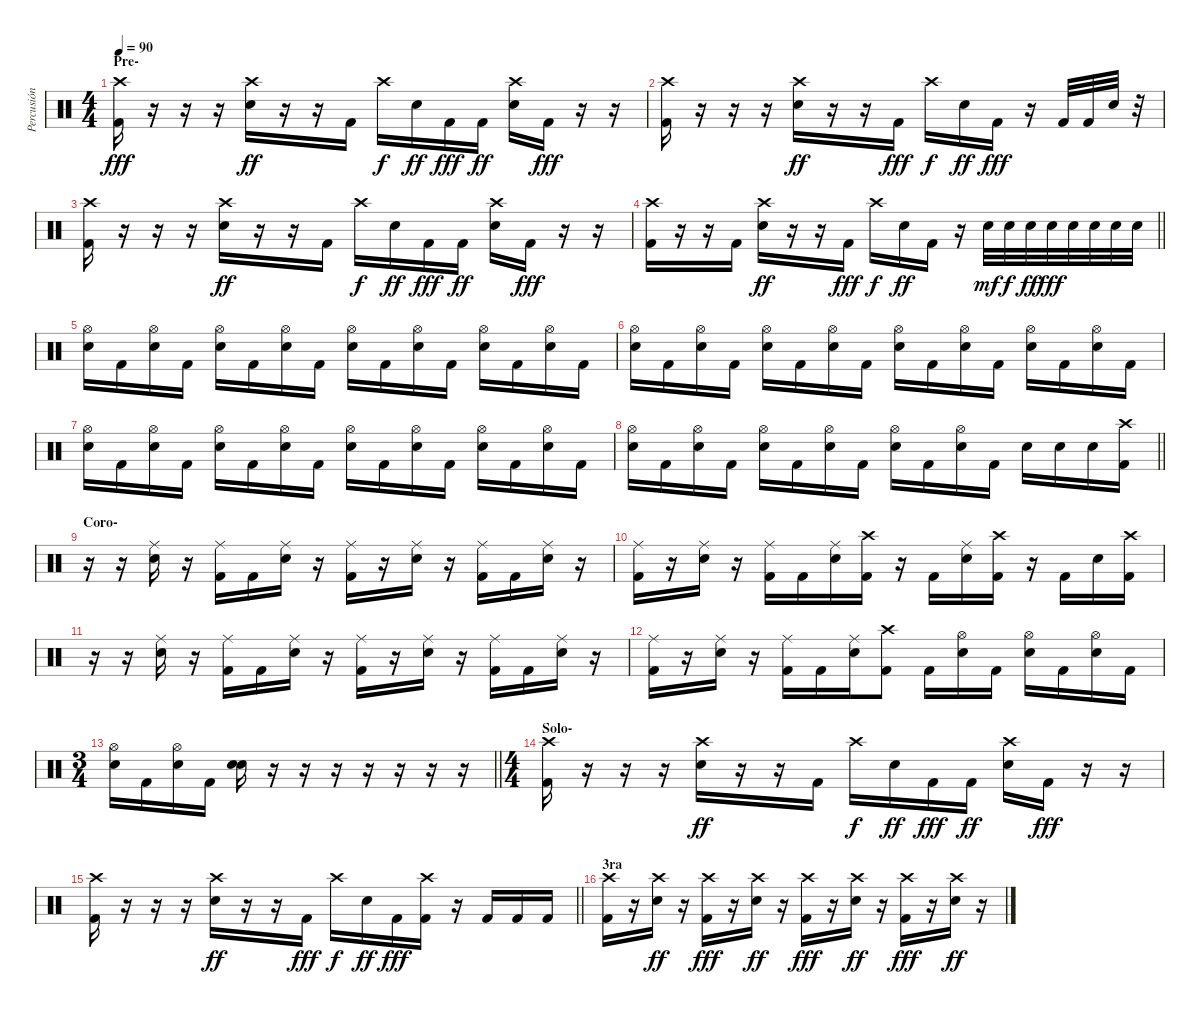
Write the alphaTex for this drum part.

\track ("Percusión" "Percusión") {instrument percussion}
\staff {score}
\articulation defaults
\ts (4 4)
\section ("" "Pre-")
\tempo 90
\clef neutral
\ks c
("Crash high (hit)" "Kick (hit) 2").16{dy fff} r.16 r.16 r.16 ("Crash high (hit)" "Electric Snare (hit)").16{dy ff} r.16 r.16 "Kick (hit) 2".16 "Crash high (hit)".16{dy f} "Electric Snare (hit)".16{dy ff} "Kick (hit) 2".16{dy fff} "Kick (hit) 2".16{dy ff} ("Crash high (hit)" "Electric Snare (hit)").16 "Kick (hit) 2".16{dy fff} r.16 r.16 |
("Crash high (hit)" "Kick (hit) 2").16 r.16 r.16 r.16 ("Crash high (hit)" "Electric Snare (hit)").16{dy ff} r.16 r.16 "Kick (hit) 2".16{dy fff} "Crash high (hit)".16{dy f} "Electric Snare (hit)".16{dy ff} "Kick (hit) 2".16{dy fff} r.16 "Kick (hit) 2".32 "Kick (hit) 2".32 "Electric Snare (hit)".32 r.32 |
("Crash high (hit)" "Kick (hit) 2").16 r.16 r.16 r.16 ("Crash high (hit)" "Electric Snare (hit)").16{dy ff} r.16 r.16 "Kick (hit) 2".16 "Crash high (hit)".16{dy f} "Electric Snare (hit)".16{dy ff} "Kick (hit) 2".16{dy fff} "Kick (hit) 2".16{dy ff} ("Crash high (hit)" "Electric Snare (hit)").16 "Kick (hit) 2".16{dy fff} r.16 r.16 |
\barLineRight lightlight
("Crash high (hit)" "Kick (hit) 2").16 r.16 r.16 "Kick (hit) 2".16 ("Crash high (hit)" "Electric Snare (hit)").16{dy ff} r.16 r.16 "Kick (hit) 2".16{dy fff} "Crash high (hit)".16{dy f} "Electric Snare (hit)".16{dy ff} "Kick (hit) 2".16 r.16 "Electric Snare (hit)".32{dy mf} "Electric Snare (hit)".32{dy f} "Electric Snare (hit)".32{dy ff} "Electric Snare (hit)".32{dy fff} "Electric Snare (hit)".32 "Electric Snare (hit)".32 "Electric Snare (hit)".32 "Electric Snare (hit)".32 |
\section ("" "")
("Hi-Hat (open)" "Electric Snare (hit)").16 "Kick (hit) 2".16 ("Hi-Hat (open)" "Electric Snare (hit)").16 "Kick (hit) 2".16 ("Hi-Hat (open)" "Electric Snare (hit)").16 "Kick (hit) 2".16 ("Hi-Hat (open)" "Electric Snare (hit)").16 "Kick (hit) 2".16 ("Hi-Hat (open)" "Electric Snare (hit)").16 "Kick (hit) 2".16 ("Hi-Hat (open)" "Electric Snare (hit)").16 "Kick (hit) 2".16 ("Hi-Hat (open)" "Electric Snare (hit)").16 "Kick (hit) 2".16 ("Hi-Hat (open)" "Electric Snare (hit)").16 "Kick (hit) 2".16 |
("Hi-Hat (open)" "Electric Snare (hit)").16 "Kick (hit) 2".16 ("Hi-Hat (open)" "Electric Snare (hit)").16 "Kick (hit) 2".16 ("Hi-Hat (open)" "Electric Snare (hit)").16 "Kick (hit) 2".16 ("Hi-Hat (open)" "Electric Snare (hit)").16 "Kick (hit) 2".16 ("Hi-Hat (open)" "Electric Snare (hit)").16 "Kick (hit) 2".16 ("Hi-Hat (open)" "Electric Snare (hit)").16 "Kick (hit) 2".16 ("Hi-Hat (open)" "Electric Snare (hit)").16 "Kick (hit) 2".16 ("Hi-Hat (open)" "Electric Snare (hit)").16 "Kick (hit) 2".16 |
("Hi-Hat (open)" "Electric Snare (hit)").16 "Kick (hit) 2".16 ("Hi-Hat (open)" "Electric Snare (hit)").16 "Kick (hit) 2".16 ("Hi-Hat (open)" "Electric Snare (hit)").16 "Kick (hit) 2".16 ("Hi-Hat (open)" "Electric Snare (hit)").16 "Kick (hit) 2".16 ("Hi-Hat (open)" "Electric Snare (hit)").16 "Kick (hit) 2".16 ("Hi-Hat (open)" "Electric Snare (hit)").16 "Kick (hit) 2".16 ("Hi-Hat (open)" "Electric Snare (hit)").16 "Kick (hit) 2".16 ("Hi-Hat (open)" "Electric Snare (hit)").16 "Kick (hit) 2".16 |
\barLineRight lightlight
("Hi-Hat (open)" "Electric Snare (hit)").16 "Kick (hit) 2".16 ("Hi-Hat (open)" "Electric Snare (hit)").16 "Kick (hit) 2".16 ("Hi-Hat (open)" "Electric Snare (hit)").16 "Kick (hit) 2".16 ("Hi-Hat (open)" "Electric Snare (hit)").16 "Kick (hit) 2".16 ("Hi-Hat (open)" "Electric Snare (hit)").16 "Kick (hit) 2".16 ("Hi-Hat (open)" "Electric Snare (hit)").16 "Kick (hit) 2".16 "Electric Snare (hit)".16 "Electric Snare (hit)".16 "Electric Snare (hit)".16 ("Crash high (hit)" "Kick (hit) 2").16 |
\section ("" "Coro-")
r.16 r.16 ("Ride (middle)" "Electric Snare (hit)").16 r.16 ("Ride (middle)" "Kick (hit) 2").16 "Kick (hit) 2".16 ("Ride (middle)" "Electric Snare (hit)").16 r.16 ("Ride (middle)" "Kick (hit) 2").16 r.16 ("Ride (middle)" "Electric Snare (hit)").16 r.16 ("Ride (middle)" "Kick (hit) 2").16 "Kick (hit) 2".16 ("Ride (middle)" "Electric Snare (hit)").16 r.16 |
("Ride (middle)" "Kick (hit) 2").16 r.16 ("Ride (middle)" "Electric Snare (hit)").16 r.16 ("Ride (middle)" "Kick (hit) 2").16 "Kick (hit) 2".16 ("Ride (middle)" "Electric Snare (hit)").16 ("Crash high (hit)" "Kick (hit) 2").16 r.16 "Kick (hit) 2".16 ("Ride (middle)" "Electric Snare (hit)").16 ("Crash high (hit)" "Kick (hit) 2").16 r.16 "Kick (hit) 2".16 "Electric Snare (hit)".16 ("Crash high (hit)" "Kick (hit) 2").16 |
r.16 r.16 ("Ride (middle)" "Electric Snare (hit)").16 r.16 ("Ride (middle)" "Kick (hit) 2").16 "Kick (hit) 2".16 ("Ride (middle)" "Electric Snare (hit)").16 r.16 ("Ride (middle)" "Kick (hit) 2").16 r.16 ("Ride (middle)" "Electric Snare (hit)").16 r.16 ("Ride (middle)" "Kick (hit) 2").16 "Kick (hit) 2".16 ("Ride (middle)" "Electric Snare (hit)").16 r.16 |
("Ride (middle)" "Kick (hit) 2").16 r.16 ("Ride (middle)" "Electric Snare (hit)").16 r.16 ("Ride (middle)" "Kick (hit) 2").16 "Kick (hit) 2".16 ("Ride (middle)" "Electric Snare (hit)").16 ("Crash high (hit)" "Kick (hit) 2").8 "Kick (hit) 2".16 ("Hi-Hat (open)" "Electric Snare (hit)").16 "Kick (hit) 2".16 ("Hi-Hat (open)" "Electric Snare (hit)").16 "Kick (hit) 2".16 ("Hi-Hat (open)" "Electric Snare (hit)").16 "Kick (hit) 2".16 |
\ts (3 4)
\barLineRight lightlight
("Hi-Hat (open)" "Electric Snare (hit)").16 "Kick (hit) 2".16 ("Hi-Hat (open)" "Electric Snare (hit)").16 "Kick (hit) 2".16 ("Electric Snare (hit)" "Electric Snare (hit)").16 r.16 r.16 r.16 r.16 r.16 r.16 r.16 |
\ts (4 4)
\section ("" "Solo-")
("Crash high (hit)" "Kick (hit) 2").16 r.16 r.16 r.16 ("Crash high (hit)" "Electric Snare (hit)").16{dy ff} r.16 r.16 "Kick (hit) 2".16 "Crash high (hit)".16{dy f} "Electric Snare (hit)".16{dy ff} "Kick (hit) 2".16{dy fff} "Kick (hit) 2".16{dy ff} ("Crash high (hit)" "Electric Snare (hit)").16 "Kick (hit) 2".16{dy fff} r.16 r.16 |
\barLineRight lightlight
("Crash high (hit)" "Kick (hit) 2").16 r.16 r.16 r.16 ("Crash high (hit)" "Electric Snare (hit)").16{dy ff} r.16 r.16 "Kick (hit) 2".16{dy fff} "Crash high (hit)".16{dy f} "Electric Snare (hit)".16{dy ff} "Kick (hit) 2".16{dy fff} ("Crash high (hit)" "Kick (hit) 2").16 r.16 "Kick (hit) 2".16 "Kick (hit) 2".16 "Kick (hit) 2".16 |
\section ("" "3ra")
("Crash high (hit)" "Kick (hit) 2").16 r.16 ("Crash high (hit)" "Electric Snare (hit)").16{dy ff} r.16 ("Crash high (hit)" "Kick (hit) 2").16{dy fff} r.16 ("Crash high (hit)" "Electric Snare (hit)").16{dy ff} r.16 ("Crash high (hit)" "Kick (hit) 2").16{dy fff} r.16 ("Crash high (hit)" "Electric Snare (hit)").16{dy ff} r.16 ("Crash high (hit)" "Kick (hit) 2").16{dy fff} r.16 ("Crash high (hit)" "Electric Snare (hit)").16{dy ff} r.16
